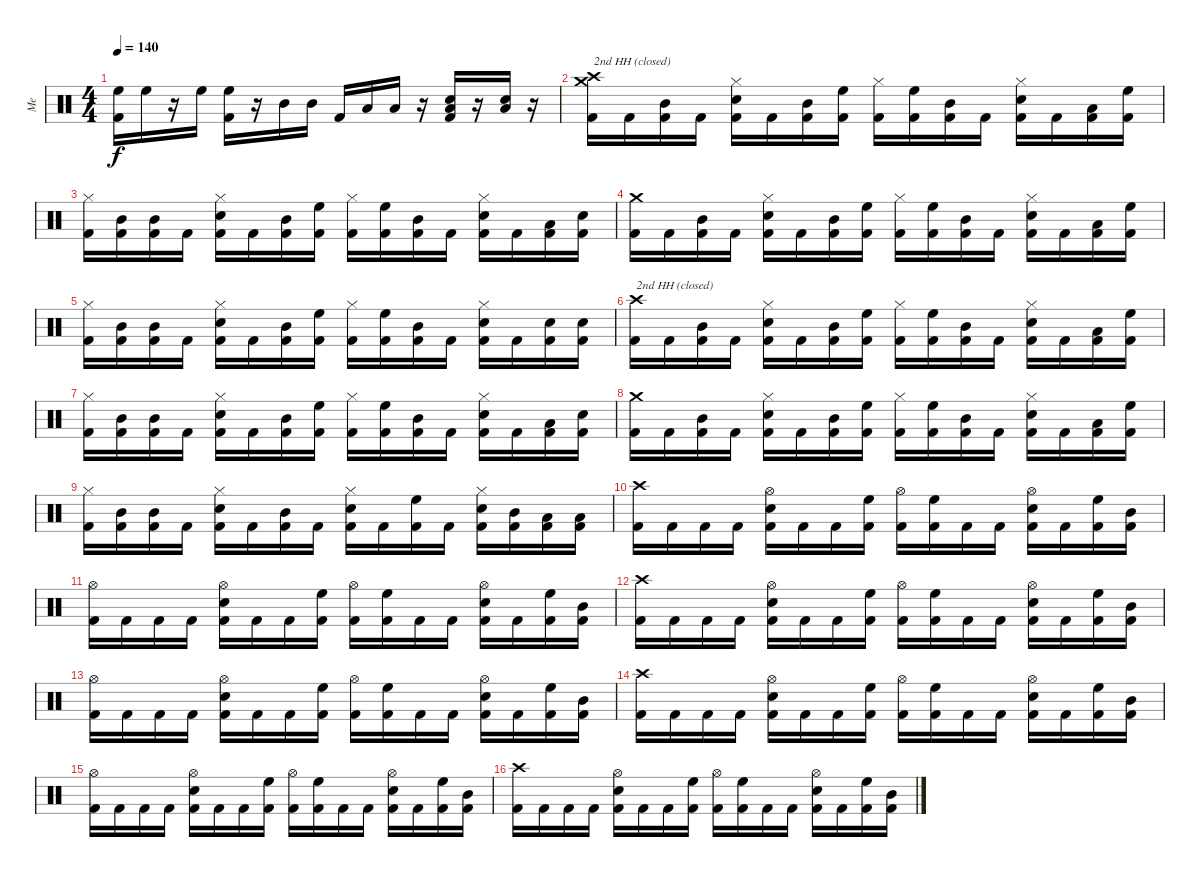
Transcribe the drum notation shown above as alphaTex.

\track ("Me" "Me") {instrument percussion}
\staff {score}
\articulation defaults
\ts (4 4)
\tempo 140
\clef neutral
\ks c
("High Floor Tom (hit)" "Kick (hit) 2").16{dy f} "High Floor Tom (hit)".16 r.16 "High Floor Tom (hit)".16 ("High Floor Tom (hit)" "Kick (hit) 2").16 r.16 "Mid Tom (hit)".16 "Mid Tom (hit)".16 "Kick (hit) 2".16 "Low Tom (hit)".16 "Low Tom (hit)".16 r.16 ("Electric Snare (hit)" "Low Floor Tom (hit)" "Kick (hit) 2").16 r.16 ("Electric Snare (hit)" "Low Floor Tom (hit)").16 r.16 |
("Crash high (hit)" "Crash medium (hit)" "Kick (hit) 2").16{txt "2nd HH (closed)"} "Kick (hit) 2".16 ("Mid Tom (hit)" "Kick (hit) 2").16 "Kick (hit) 2".16 ("Hi-Hat (closed)" "Electric Snare (hit)" "Kick (hit) 2").16 "Kick (hit) 2".16 ("Mid Tom (hit)" "Kick (hit) 2").16 ("High Floor Tom (hit)" "Kick (hit) 2").16 ("Hi-Hat (closed)" "Kick (hit) 2").16 ("High Floor Tom (hit)" "Kick (hit) 2").16 ("Mid Tom (hit)" "Kick (hit) 2").16 "Kick (hit) 2".16 ("Hi-Hat (closed)" "Electric Snare (hit)" "Kick (hit) 2").16 "Kick (hit) 2".16 ("Low Tom (hit)" "Kick (hit) 2").16 ("High Floor Tom (hit)" "Kick (hit) 2").16 |
("Hi-Hat (closed)" "Kick (hit) 2").16 ("Mid Tom (hit)" "Kick (hit) 2").16 ("Mid Tom (hit)" "Kick (hit) 2").16 "Kick (hit) 2".16 ("Hi-Hat (closed)" "Electric Snare (hit)" "Kick (hit) 2").16 "Kick (hit) 2".16 ("Mid Tom (hit)" "Kick (hit) 2").16 ("High Floor Tom (hit)" "Kick (hit) 2").16 ("Hi-Hat (closed)" "Kick (hit) 2").16 ("High Floor Tom (hit)" "Kick (hit) 2").16 ("Mid Tom (hit)" "Kick (hit) 2").16 "Kick (hit) 2".16 ("Hi-Hat (closed)" "Electric Snare (hit)" "Kick (hit) 2").16 "Kick (hit) 2".16 ("Low Tom (hit)" "Kick (hit) 2").16 ("Electric Snare (hit)" "Kick (hit) 2").16 |
("Crash medium (hit)" "Kick (hit) 2").16 "Kick (hit) 2".16 ("Mid Tom (hit)" "Kick (hit) 2").16 "Kick (hit) 2".16 ("Hi-Hat (closed)" "Electric Snare (hit)" "Kick (hit) 2").16 "Kick (hit) 2".16 ("Mid Tom (hit)" "Kick (hit) 2").16 ("High Floor Tom (hit)" "Kick (hit) 2").16 ("Hi-Hat (closed)" "Kick (hit) 2").16 ("High Floor Tom (hit)" "Kick (hit) 2").16 ("Mid Tom (hit)" "Kick (hit) 2").16 "Kick (hit) 2".16 ("Hi-Hat (closed)" "Electric Snare (hit)" "Kick (hit) 2").16 "Kick (hit) 2".16 ("Low Tom (hit)" "Kick (hit) 2").16 ("High Floor Tom (hit)" "Kick (hit) 2").16 |
("Hi-Hat (closed)" "Kick (hit) 2").16 ("Mid Tom (hit)" "Kick (hit) 2").16 ("Mid Tom (hit)" "Kick (hit) 2").16 "Kick (hit) 2".16 ("Hi-Hat (closed)" "Electric Snare (hit)" "Kick (hit) 2").16 "Kick (hit) 2".16 ("Mid Tom (hit)" "Kick (hit) 2").16 ("High Floor Tom (hit)" "Kick (hit) 2").16 ("Hi-Hat (closed)" "Kick (hit) 2").16 ("High Floor Tom (hit)" "Kick (hit) 2").16 ("Mid Tom (hit)" "Kick (hit) 2").16 "Kick (hit) 2".16 ("Hi-Hat (closed)" "Electric Snare (hit)" "Kick (hit) 2").16 "Kick (hit) 2".16 ("Electric Snare (hit)" "Kick (hit) 2").16 ("Electric Snare (hit)" "Kick (hit) 2").16 |
("Crash high (hit)" "Kick (hit) 2").16{txt "2nd HH (closed)"} "Kick (hit) 2".16 ("Mid Tom (hit)" "Kick (hit) 2").16 "Kick (hit) 2".16 ("Hi-Hat (closed)" "Electric Snare (hit)" "Kick (hit) 2").16 "Kick (hit) 2".16 ("Mid Tom (hit)" "Kick (hit) 2").16 ("High Floor Tom (hit)" "Kick (hit) 2").16 ("Hi-Hat (closed)" "Kick (hit) 2").16 ("High Floor Tom (hit)" "Kick (hit) 2").16 ("Mid Tom (hit)" "Kick (hit) 2").16 "Kick (hit) 2".16 ("Hi-Hat (closed)" "Electric Snare (hit)" "Kick (hit) 2").16 "Kick (hit) 2".16 ("Low Tom (hit)" "Kick (hit) 2").16 ("High Floor Tom (hit)" "Kick (hit) 2").16 |
("Hi-Hat (closed)" "Kick (hit) 2").16 ("Mid Tom (hit)" "Kick (hit) 2").16 ("Mid Tom (hit)" "Kick (hit) 2").16 "Kick (hit) 2".16 ("Hi-Hat (closed)" "Electric Snare (hit)" "Kick (hit) 2").16 "Kick (hit) 2".16 ("Mid Tom (hit)" "Kick (hit) 2").16 ("High Floor Tom (hit)" "Kick (hit) 2").16 ("Hi-Hat (closed)" "Kick (hit) 2").16 ("High Floor Tom (hit)" "Kick (hit) 2").16 ("Mid Tom (hit)" "Kick (hit) 2").16 "Kick (hit) 2".16 ("Hi-Hat (closed)" "Electric Snare (hit)" "Kick (hit) 2").16 "Kick (hit) 2".16 ("Low Tom (hit)" "Kick (hit) 2").16 ("Electric Snare (hit)" "Kick (hit) 2").16 |
("Crash medium (hit)" "Kick (hit) 2").16 "Kick (hit) 2".16 ("Mid Tom (hit)" "Kick (hit) 2").16 "Kick (hit) 2".16 ("Hi-Hat (closed)" "Electric Snare (hit)" "Kick (hit) 2").16 "Kick (hit) 2".16 ("Mid Tom (hit)" "Kick (hit) 2").16 ("High Floor Tom (hit)" "Kick (hit) 2").16 ("Hi-Hat (closed)" "Kick (hit) 2").16 ("High Floor Tom (hit)" "Kick (hit) 2").16 ("Mid Tom (hit)" "Kick (hit) 2").16 "Kick (hit) 2".16 ("Hi-Hat (closed)" "Electric Snare (hit)" "Kick (hit) 2").16 "Kick (hit) 2".16 ("Low Tom (hit)" "Kick (hit) 2").16 ("High Floor Tom (hit)" "Kick (hit) 2").16 |
("Hi-Hat (closed)" "Kick (hit) 2").16 ("Mid Tom (hit)" "Kick (hit) 2").16 ("Mid Tom (hit)" "Kick (hit) 2").16 "Kick (hit) 2".16 ("Hi-Hat (closed)" "Electric Snare (hit)" "Kick (hit) 2").16 "Kick (hit) 2".16 ("Mid Tom (hit)" "Kick (hit) 2").16 "Kick (hit) 2".16 ("Hi-Hat (closed)" "Electric Snare (hit)" "Kick (hit) 2").16 "Kick (hit) 2".16 ("High Floor Tom (hit)" "Kick (hit) 2").16 "Kick (hit) 2".16 ("Hi-Hat (closed)" "Electric Snare (hit)" "Kick (hit) 2").16 ("Mid Tom (hit)" "Kick (hit) 2").16 ("Low Tom (hit)" "Kick (hit) 2").16 ("Low Floor Tom (hit)" "Kick (hit) 2").16 |
("Crash high (hit)" "Kick (hit) 2").16 "Kick (hit) 2".16 "Kick (hit) 2".16 "Kick (hit) 2".16 ("Hi-Hat (open)" "Electric Snare (hit)" "Kick (hit) 2").16 "Kick (hit) 2".16 "Kick (hit) 2".16 ("High Floor Tom (hit)" "Kick (hit) 2").16 ("Hi-Hat (open)" "Kick (hit) 2").16 ("High Floor Tom (hit)" "Kick (hit) 2").16 "Kick (hit) 2".16 "Kick (hit) 2".16 ("Hi-Hat (open)" "Electric Snare (hit)" "Kick (hit) 2").16 "Kick (hit) 2".16 ("High Floor Tom (hit)" "Kick (hit) 2").16 ("Mid Tom (hit)" "Kick (hit) 2").16 |
("Hi-Hat (open)" "Kick (hit) 2").16 "Kick (hit) 2".16 "Kick (hit) 2".16 "Kick (hit) 2".16 ("Hi-Hat (open)" "Electric Snare (hit)" "Kick (hit) 2").16 "Kick (hit) 2".16 "Kick (hit) 2".16 ("High Floor Tom (hit)" "Kick (hit) 2").16 ("Hi-Hat (open)" "Kick (hit) 2").16 ("High Floor Tom (hit)" "Kick (hit) 2").16 "Kick (hit) 2".16 "Kick (hit) 2".16 ("Hi-Hat (open)" "Electric Snare (hit)" "Kick (hit) 2").16 "Kick (hit) 2".16 ("High Floor Tom (hit)" "Kick (hit) 2").16 ("Mid Tom (hit)" "Kick (hit) 2").16 |
("Crash high (hit)" "Kick (hit) 2").16 "Kick (hit) 2".16 "Kick (hit) 2".16 "Kick (hit) 2".16 ("Hi-Hat (open)" "Electric Snare (hit)" "Kick (hit) 2").16 "Kick (hit) 2".16 "Kick (hit) 2".16 ("High Floor Tom (hit)" "Kick (hit) 2").16 ("Hi-Hat (open)" "Kick (hit) 2").16 ("High Floor Tom (hit)" "Kick (hit) 2").16 "Kick (hit) 2".16 "Kick (hit) 2".16 ("Hi-Hat (open)" "Electric Snare (hit)" "Kick (hit) 2").16 "Kick (hit) 2".16 ("High Floor Tom (hit)" "Kick (hit) 2").16 ("Mid Tom (hit)" "Kick (hit) 2").16 |
("Hi-Hat (open)" "Kick (hit) 2").16 "Kick (hit) 2".16 "Kick (hit) 2".16 "Kick (hit) 2".16 ("Hi-Hat (open)" "Electric Snare (hit)" "Kick (hit) 2").16 "Kick (hit) 2".16 "Kick (hit) 2".16 ("High Floor Tom (hit)" "Kick (hit) 2").16 ("Hi-Hat (open)" "Kick (hit) 2").16 ("High Floor Tom (hit)" "Kick (hit) 2").16 "Kick (hit) 2".16 "Kick (hit) 2".16 ("Hi-Hat (open)" "Electric Snare (hit)" "Kick (hit) 2").16 "Kick (hit) 2".16 ("High Floor Tom (hit)" "Kick (hit) 2").16 ("Mid Tom (hit)" "Kick (hit) 2").16 |
("Crash high (hit)" "Kick (hit) 2").16 "Kick (hit) 2".16 "Kick (hit) 2".16 "Kick (hit) 2".16 ("Hi-Hat (open)" "Electric Snare (hit)" "Kick (hit) 2").16 "Kick (hit) 2".16 "Kick (hit) 2".16 ("High Floor Tom (hit)" "Kick (hit) 2").16 ("Hi-Hat (open)" "Kick (hit) 2").16 ("High Floor Tom (hit)" "Kick (hit) 2").16 "Kick (hit) 2".16 "Kick (hit) 2".16 ("Hi-Hat (open)" "Electric Snare (hit)" "Kick (hit) 2").16 "Kick (hit) 2".16 ("High Floor Tom (hit)" "Kick (hit) 2").16 ("Mid Tom (hit)" "Kick (hit) 2").16 |
("Hi-Hat (open)" "Kick (hit) 2").16 "Kick (hit) 2".16 "Kick (hit) 2".16 "Kick (hit) 2".16 ("Hi-Hat (open)" "Electric Snare (hit)" "Kick (hit) 2").16 "Kick (hit) 2".16 "Kick (hit) 2".16 ("High Floor Tom (hit)" "Kick (hit) 2").16 ("Hi-Hat (open)" "Kick (hit) 2").16 ("High Floor Tom (hit)" "Kick (hit) 2").16 "Kick (hit) 2".16 "Kick (hit) 2".16 ("Hi-Hat (open)" "Electric Snare (hit)" "Kick (hit) 2").16 "Kick (hit) 2".16 ("High Floor Tom (hit)" "Kick (hit) 2").16 ("Mid Tom (hit)" "Kick (hit) 2").16 |
("Crash high (hit)" "Kick (hit) 2").16 "Kick (hit) 2".16 "Kick (hit) 2".16 "Kick (hit) 2".16 ("Hi-Hat (open)" "Electric Snare (hit)" "Kick (hit) 2").16 "Kick (hit) 2".16 "Kick (hit) 2".16 ("High Floor Tom (hit)" "Kick (hit) 2").16 ("Hi-Hat (open)" "Kick (hit) 2").16 ("High Floor Tom (hit)" "Kick (hit) 2").16 "Kick (hit) 2".16 "Kick (hit) 2".16 ("Hi-Hat (open)" "Electric Snare (hit)" "Kick (hit) 2").16 "Kick (hit) 2".16 ("High Floor Tom (hit)" "Kick (hit) 2").16 ("Mid Tom (hit)" "Kick (hit) 2").16
